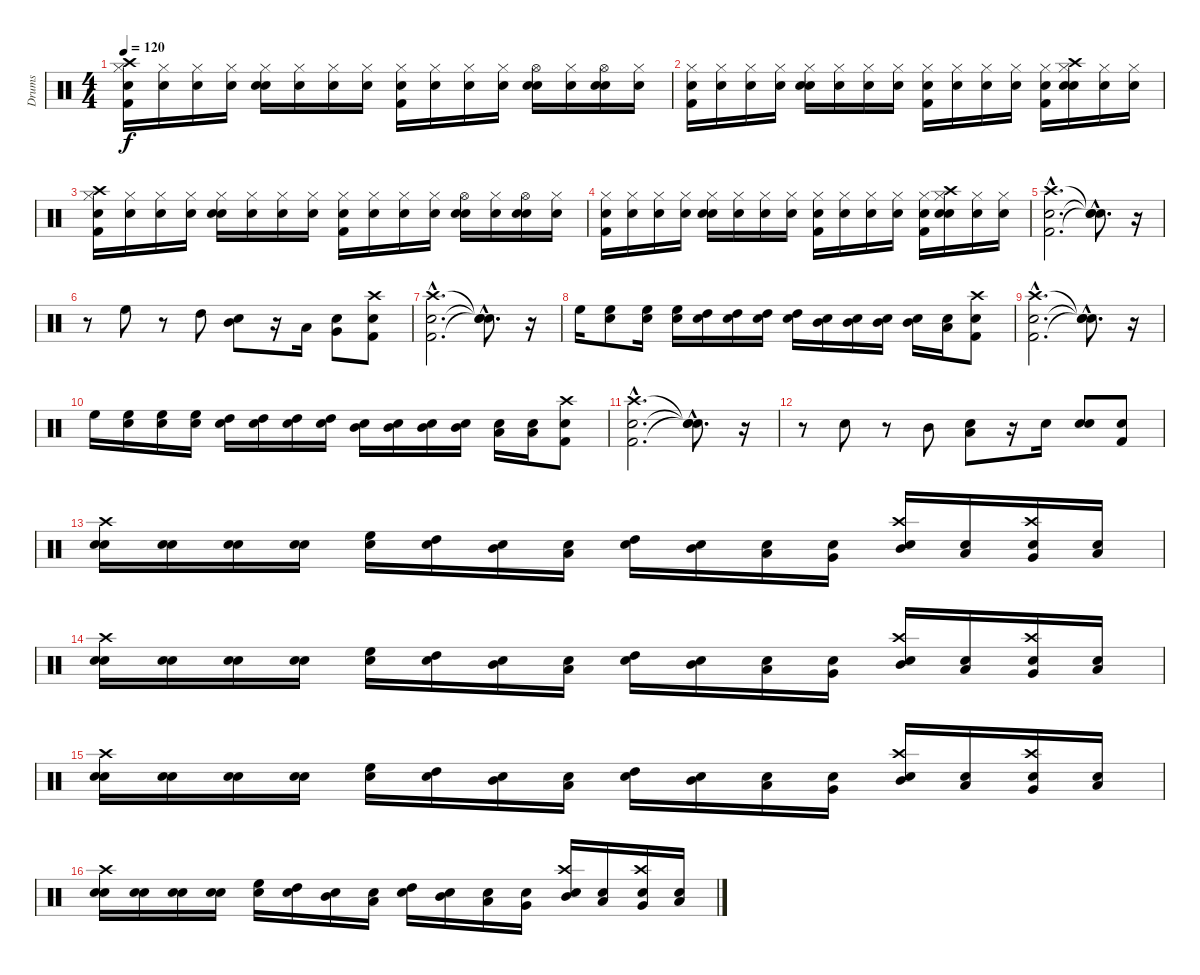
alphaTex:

\track ("Drums" "Drums") {instrument percussion}
\staff {score}
\articulation defaults
\ts (4 4)
\tempo 120
\clef neutral
\ks c
("Snare (hit)" "Kick (hit) 2" "Hi-Hat (closed)" "Crash high (hit)").16{dy f} ("Snare (hit)" "Hi-Hat (closed)").16 ("Snare (hit)" "Hi-Hat (closed)").16 ("Snare (hit)" "Hi-Hat (closed)").16 ("Snare (hit)" "Snare (hit) 2" "Hi-Hat (closed)").16 ("Snare (hit)" "Hi-Hat (closed)").16 ("Snare (hit)" "Hi-Hat (closed)").16 ("Snare (hit)" "Hi-Hat (closed)").16 ("Snare (hit)" "Kick (hit) 2" "Hi-Hat (closed)").16 ("Snare (hit)" "Hi-Hat (closed)").16 ("Snare (hit)" "Hi-Hat (closed)").16 ("Snare (hit)" "Hi-Hat (closed)").16 ("Snare (hit)" "Snare (hit) 2" "Hi-Hat (open)").16 ("Snare (hit)" "Hi-Hat (closed)").16 ("Snare (hit)" "Snare (hit) 2" "Hi-Hat (open)").16 ("Snare (hit)" "Hi-Hat (closed)").16 |
("Snare (hit)" "Kick (hit) 2" "Hi-Hat (closed)").16 ("Snare (hit)" "Hi-Hat (closed)").16 ("Snare (hit)" "Hi-Hat (closed)").16 ("Snare (hit)" "Hi-Hat (closed)").16 ("Snare (hit)" "Snare (hit) 2" "Hi-Hat (closed)").16 ("Snare (hit)" "Hi-Hat (closed)").16 ("Snare (hit)" "Hi-Hat (closed)").16 ("Snare (hit)" "Hi-Hat (closed)").16 ("Snare (hit)" "Kick (hit) 2" "Hi-Hat (closed)").16 ("Snare (hit)" "Hi-Hat (closed)").16 ("Snare (hit)" "Hi-Hat (closed)").16 ("Snare (hit)" "Hi-Hat (closed)").16 ("Snare (hit)" "Kick (hit) 2" "Hi-Hat (closed)").16 ("Snare (hit)" "Snare (hit) 2" "Hi-Hat (closed)" "Crash high (hit)").16 ("Snare (hit)" "Hi-Hat (closed)").16 ("Snare (hit)" "Hi-Hat (closed)").16 |
("Snare (hit)" "Kick (hit) 2" "Hi-Hat (closed)" "Crash high (hit)").16 ("Snare (hit)" "Hi-Hat (closed)").16 ("Snare (hit)" "Hi-Hat (closed)").16 ("Snare (hit)" "Hi-Hat (closed)").16 ("Snare (hit)" "Snare (hit) 2" "Hi-Hat (closed)").16 ("Snare (hit)" "Hi-Hat (closed)").16 ("Snare (hit)" "Hi-Hat (closed)").16 ("Snare (hit)" "Hi-Hat (closed)").16 ("Snare (hit)" "Kick (hit) 2" "Hi-Hat (closed)").16 ("Snare (hit)" "Hi-Hat (closed)").16 ("Snare (hit)" "Hi-Hat (closed)").16 ("Snare (hit)" "Hi-Hat (closed)").16 ("Snare (hit)" "Snare (hit) 2" "Hi-Hat (open)").16 ("Snare (hit)" "Hi-Hat (closed)").16 ("Snare (hit)" "Snare (hit) 2" "Hi-Hat (open)").16 ("Snare (hit)" "Hi-Hat (closed)").16 |
("Snare (hit)" "Kick (hit) 2" "Hi-Hat (closed)").16 ("Snare (hit)" "Hi-Hat (closed)").16 ("Snare (hit)" "Hi-Hat (closed)").16 ("Snare (hit)" "Hi-Hat (closed)").16 ("Snare (hit)" "Snare (hit) 2" "Hi-Hat (closed)").16 ("Snare (hit)" "Hi-Hat (closed)").16 ("Snare (hit)" "Hi-Hat (closed)").16 ("Snare (hit)" "Hi-Hat (closed)").16 ("Snare (hit)" "Kick (hit) 2" "Hi-Hat (closed)").16 ("Snare (hit)" "Hi-Hat (closed)").16 ("Snare (hit)" "Hi-Hat (closed)").16 ("Snare (hit)" "Hi-Hat (closed)").16 ("Snare (hit)" "Kick (hit) 2" "Hi-Hat (closed)").16 ("Snare (hit)" "Snare (hit) 2" "Hi-Hat (closed)" "Crash high (hit)").16 ("Snare (hit)" "Hi-Hat (closed)").16 ("Snare (hit)" "Hi-Hat (closed)").16 |
("Snare (hit)"{hac} "Kick (hit) 2"{hac} "Crash high (hit)"{hac}).2{d} ("Snare (hit)"{hac t} "Snare (hit)"{hac t} "Snare (hit)"{hac t}).8{d} r.16 |
r.8 "High Floor Tom (hit)".8 r.8 "High Tom (hit)".8 ("Snare (hit)" "Mid Tom (hit)").8 r.16 "Low Tom (hit)".16 ("Snare (hit)" "Very Low Tom (hit)").8 ("Snare (hit)" "Kick (hit) 2" "Crash high (hit)").8 |
("Snare (hit)"{hac} "Kick (hit) 2"{hac} "Crash high (hit)"{hac}).2{d} ("Snare (hit)"{hac t} "Snare (hit)"{hac t} "Snare (hit)"{hac t}).8{d} r.16 |
"High Floor Tom (hit)".16 ("Snare (hit)" "High Floor Tom (hit)").8 ("Snare (hit)" "High Floor Tom (hit)").16 ("Snare (hit)" "High Floor Tom (hit)").16 ("Snare (hit)" "High Tom (hit)").16 ("Snare (hit)" "High Tom (hit)").16 ("Snare (hit)" "High Tom (hit)").16 ("Snare (hit)" "High Tom (hit)").16 ("Snare (hit)" "Mid Tom (hit)").16 ("Snare (hit)" "Mid Tom (hit)").16 ("Snare (hit)" "Mid Tom (hit)").16 ("Snare (hit)" "Mid Tom (hit)").16 ("Snare (hit)" "Low Tom (hit)").16 ("Snare (hit)" "Kick (hit) 2" "Crash high (hit)").8 |
("Snare (hit)"{hac} "Kick (hit) 2"{hac} "Crash high (hit)"{hac}).2{d} ("Snare (hit)"{hac t} "Snare (hit)"{hac t} "Snare (hit)"{hac t}).8{d} r.16 |
"High Floor Tom (hit)".16 ("Snare (hit)" "High Floor Tom (hit)").16 ("Snare (hit)" "High Floor Tom (hit)").16 ("Snare (hit)" "High Floor Tom (hit)").16 ("Snare (hit)" "High Tom (hit)").16 ("Snare (hit)" "High Tom (hit)").16 ("Snare (hit)" "High Tom (hit)").16 ("Snare (hit)" "High Tom (hit)").16 ("Snare (hit)" "Mid Tom (hit)").16 ("Snare (hit)" "Mid Tom (hit)").16 ("Snare (hit)" "Mid Tom (hit)").16 ("Snare (hit)" "Mid Tom (hit)").16 ("Snare (hit)" "Low Tom (hit)").16 ("Snare (hit)" "Low Tom (hit)").16 ("Snare (hit)" "Kick (hit) 2" "Crash high (hit)").8 |
("Snare (hit)"{hac} "Kick (hit) 2"{hac} "Crash high (hit)"{hac}).2{d} ("Snare (hit)"{hac t} "Snare (hit)"{hac t} "Snare (hit)"{hac t}).8{d} r.16 |
r.8 "Snare (hit) 2".8 r.8 "Mid Tom (hit)".8 ("Snare (hit)" "Low Tom (hit)").8 r.16 "Snare (hit) 2".16 ("Snare (hit)" "Snare (hit) 2").8 ("Snare (hit)" "Kick (hit) 2").8 |
("Snare (hit)" "Snare (hit) 2" "Crash high (hit)").16 ("Snare (hit)" "Snare (hit) 2").16 ("Snare (hit)" "Snare (hit) 2").16 ("Snare (hit)" "Snare (hit) 2").16 ("Snare (hit)" "High Floor Tom (hit)").16 ("Snare (hit)" "High Tom (hit)").16 ("Snare (hit)" "Mid Tom (hit)").16 ("Snare (hit)" "Low Tom (hit)").16 ("Snare (hit)" "High Tom (hit)").16 ("Snare (hit)" "Mid Tom (hit)").16 ("Snare (hit)" "Low Tom (hit)").16 ("Snare (hit)" "Very Low Tom (hit)").16 ("Snare (hit)" "Mid Tom (hit)" "Crash high (hit)").16 ("Snare (hit)" "Low Tom (hit)").16 ("Snare (hit)" "Very Low Tom (hit)" "Crash high (hit)").16 ("Snare (hit)" "Low Floor Tom (hit)").16 |
("Snare (hit)" "Snare (hit) 2" "Crash high (hit)").16 ("Snare (hit)" "Snare (hit) 2").16 ("Snare (hit)" "Snare (hit) 2").16 ("Snare (hit)" "Snare (hit) 2").16 ("Snare (hit)" "High Floor Tom (hit)").16 ("Snare (hit)" "High Tom (hit)").16 ("Snare (hit)" "Mid Tom (hit)").16 ("Snare (hit)" "Low Tom (hit)").16 ("Snare (hit)" "High Tom (hit)").16 ("Snare (hit)" "Mid Tom (hit)").16 ("Snare (hit)" "Low Tom (hit)").16 ("Snare (hit)" "Very Low Tom (hit)").16 ("Snare (hit)" "Mid Tom (hit)" "Crash high (hit)").16 ("Snare (hit)" "Low Tom (hit)").16 ("Snare (hit)" "Very Low Tom (hit)" "Crash high (hit)").16 ("Snare (hit)" "Low Floor Tom (hit)").16 |
("Snare (hit)" "Snare (hit) 2" "Crash high (hit)").16 ("Snare (hit)" "Snare (hit) 2").16 ("Snare (hit)" "Snare (hit) 2").16 ("Snare (hit)" "Snare (hit) 2").16 ("Snare (hit)" "High Floor Tom (hit)").16 ("Snare (hit)" "High Tom (hit)").16 ("Snare (hit)" "Mid Tom (hit)").16 ("Snare (hit)" "Low Tom (hit)").16 ("Snare (hit)" "High Tom (hit)").16 ("Snare (hit)" "Mid Tom (hit)").16 ("Snare (hit)" "Low Tom (hit)").16 ("Snare (hit)" "Very Low Tom (hit)").16 ("Snare (hit)" "Mid Tom (hit)" "Crash high (hit)").16 ("Snare (hit)" "Low Tom (hit)").16 ("Snare (hit)" "Very Low Tom (hit)" "Crash high (hit)").16 ("Snare (hit)" "Low Floor Tom (hit)").16 |
("Snare (hit)" "Snare (hit) 2" "Crash high (hit)").16 ("Snare (hit)" "Snare (hit) 2").16 ("Snare (hit)" "Snare (hit) 2").16 ("Snare (hit)" "Snare (hit) 2").16 ("Snare (hit)" "High Floor Tom (hit)").16 ("Snare (hit)" "High Tom (hit)").16 ("Snare (hit)" "Mid Tom (hit)").16 ("Snare (hit)" "Low Tom (hit)").16 ("Snare (hit)" "High Tom (hit)").16 ("Snare (hit)" "Mid Tom (hit)").16 ("Snare (hit)" "Low Tom (hit)").16 ("Snare (hit)" "Very Low Tom (hit)").16 ("Snare (hit)" "Mid Tom (hit)" "Crash high (hit)").16 ("Snare (hit)" "Low Tom (hit)").16 ("Snare (hit)" "Very Low Tom (hit)" "Crash high (hit)").16 ("Snare (hit)" "Low Floor Tom (hit)").16
